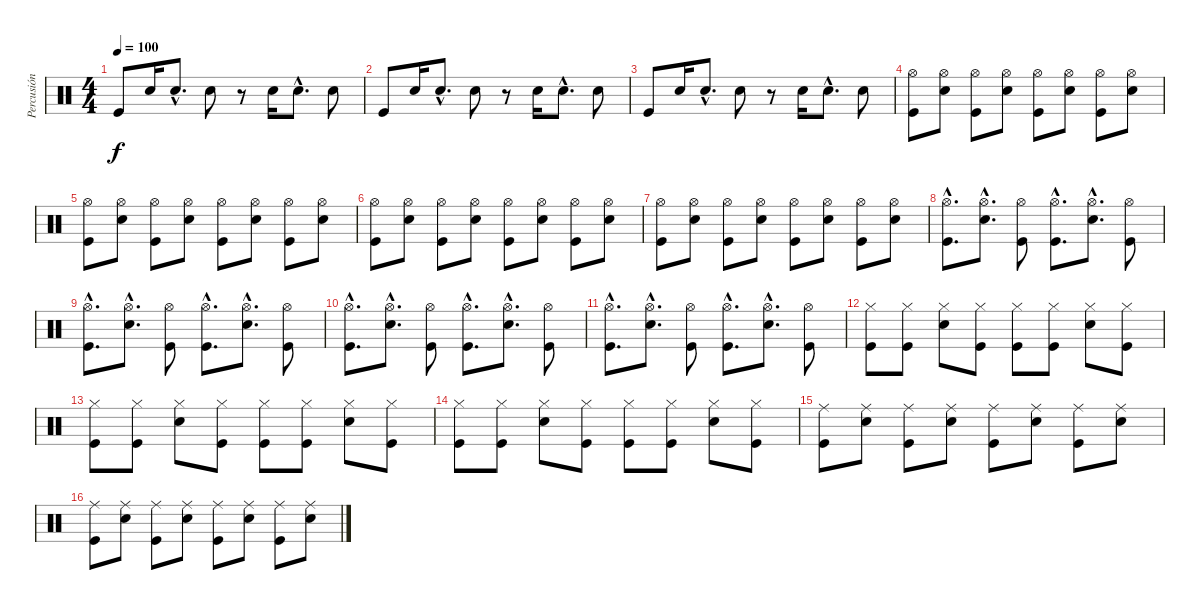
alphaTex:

\track ("Percusión" "Percusión") {instrument percussion}
\staff {score}
\articulation defaults
\ts (4 4)
\tempo 100
\clef neutral
\ks c "Kick (hit)".8{dy f} "Snare (hit) 2".16 "Snare (hit) 2"{hac}.8{d} "Snare (hit) 2".8
r.8 "Snare (hit) 2".16 "Snare (hit) 2"{hac}.8{d} "Snare (hit) 2".8 |
"Kick (hit)".8 "Snare (hit) 2".16 "Snare (hit) 2"{hac}.8{d} "Snare (hit) 2".8 r.8 "Snare (hit) 2".16 "Snare (hit) 2"{hac}.8{d} "Snare (hit) 2".8 |
"Kick (hit)".8 "Snare (hit) 2".16 "Snare (hit) 2"{hac}.8{d} "Snare (hit) 2".8 r.8 "Snare (hit) 2".16 "Snare (hit) 2"{hac}.8{d} "Snare (hit) 2".8 |
("Hi-Hat (open)" "Kick (hit)").8 ("Hi-Hat (open)" "Snare (hit) 2").8 ("Hi-Hat (open)" "Kick (hit)").8 ("Hi-Hat (open)" "Snare (hit) 2").8 ("Hi-Hat (open)" "Kick (hit)").8 ("Hi-Hat (open)" "Snare (hit) 2").8 ("Hi-Hat (open)" "Kick (hit)").8 ("Hi-Hat (open)" "Snare (hit) 2").8 |
("Hi-Hat (open)" "Kick (hit)").8 ("Hi-Hat (open)" "Snare (hit) 2").8 ("Hi-Hat (open)" "Kick (hit)").8 ("Hi-Hat (open)" "Snare (hit) 2").8 ("Hi-Hat (open)" "Kick (hit)").8 ("Hi-Hat (open)" "Snare (hit) 2").8 ("Hi-Hat (open)" "Kick (hit)").8 ("Hi-Hat (open)" "Snare (hit) 2").8 |
("Hi-Hat (open)" "Kick (hit)").8 ("Hi-Hat (open)" "Snare (hit) 2").8 ("Hi-Hat (open)" "Kick (hit)").8 ("Hi-Hat (open)" "Snare (hit) 2").8 ("Hi-Hat (open)" "Kick (hit)").8 ("Hi-Hat (open)" "Snare (hit) 2").8 ("Hi-Hat (open)" "Kick (hit)").8 ("Hi-Hat (open)" "Snare (hit) 2").8 |
("Hi-Hat (open)" "Kick (hit)").8 ("Hi-Hat (open)" "Snare (hit) 2").8 ("Hi-Hat (open)" "Kick (hit)").8 ("Hi-Hat (open)" "Snare (hit) 2").8 ("Hi-Hat (open)" "Kick (hit)").8 ("Hi-Hat (open)" "Snare (hit) 2").8 ("Hi-Hat (open)" "Kick (hit)").8 ("Hi-Hat (open)" "Snare (hit) 2").8 |
("Hi-Hat (open)"{hac} "Kick (hit)"{hac}).8{d} ("Hi-Hat (open)"{hac} "Snare (hit) 2"{hac}).8{d} ("Hi-Hat (open)" "Kick (hit)").8 ("Hi-Hat (open)"{hac} "Kick (hit)"{hac}).8{d} ("Hi-Hat (open)"{hac} "Snare (hit) 2"{hac}).8{d} ("Hi-Hat (open)" "Kick (hit)").8 |
("Hi-Hat (open)"{hac} "Kick (hit)"{hac}).8{d} ("Hi-Hat (open)"{hac} "Snare (hit) 2"{hac}).8{d} ("Hi-Hat (open)" "Kick (hit)").8 ("Hi-Hat (open)"{hac} "Kick (hit)"{hac}).8{d} ("Hi-Hat (open)"{hac} "Snare (hit) 2"{hac}).8{d} ("Hi-Hat (open)" "Kick (hit)").8 |
("Hi-Hat (open)"{hac} "Kick (hit)"{hac}).8{d} ("Hi-Hat (open)"{hac} "Snare (hit) 2"{hac}).8{d} ("Hi-Hat (open)" "Kick (hit)").8 ("Hi-Hat (open)"{hac} "Kick (hit)"{hac}).8{d} ("Hi-Hat (open)"{hac} "Snare (hit) 2"{hac}).8{d} ("Hi-Hat (open)" "Kick (hit)").8 |
("Hi-Hat (open)"{hac} "Kick (hit)"{hac}).8{d} ("Hi-Hat (open)"{hac} "Snare (hit) 2"{hac}).8{d} ("Hi-Hat (open)" "Kick (hit)").8 ("Hi-Hat (open)"{hac} "Kick (hit)"{hac}).8{d} ("Hi-Hat (open)"{hac} "Snare (hit) 2"{hac}).8{d} ("Hi-Hat (open)" "Kick (hit)").8 |
("Hi-Hat (closed)" "Kick (hit)").8 ("Hi-Hat (closed)" "Kick (hit)").8 ("Hi-Hat (closed)" "Snare (hit) 2").8 ("Hi-Hat (closed)" "Kick (hit)").8 ("Hi-Hat (closed)" "Kick (hit)").8 ("Hi-Hat (closed)" "Kick (hit)").8 ("Hi-Hat (closed)" "Snare (hit) 2").8 ("Hi-Hat (closed)" "Kick (hit)").8 |
("Hi-Hat (closed)" "Kick (hit)").8 ("Hi-Hat (closed)" "Kick (hit)").8 ("Hi-Hat (closed)" "Snare (hit) 2").8 ("Hi-Hat (closed)" "Kick (hit)").8 ("Hi-Hat (closed)" "Kick (hit)").8 ("Hi-Hat (closed)" "Kick (hit)").8 ("Hi-Hat (closed)" "Snare (hit) 2").8 ("Hi-Hat (closed)" "Kick (hit)").8 |
("Hi-Hat (closed)" "Kick (hit)").8 ("Hi-Hat (closed)" "Kick (hit)").8 ("Hi-Hat (closed)" "Snare (hit) 2").8 ("Hi-Hat (closed)" "Kick (hit)").8 ("Hi-Hat (closed)" "Kick (hit)").8 ("Hi-Hat (closed)" "Kick (hit)").8 ("Hi-Hat (closed)" "Snare (hit) 2").8 ("Hi-Hat (closed)" "Kick (hit)").8 |
("Ride (middle)" "Kick (hit)").8 ("Ride (middle)" "Snare (hit) 2").8 ("Ride (middle)" "Kick (hit)").8 ("Ride (middle)" "Snare (hit) 2").8 ("Ride (middle)" "Kick (hit)").8 ("Ride (middle)" "Snare (hit) 2").8 ("Ride (middle)" "Kick (hit)").8 ("Ride (middle)" "Snare (hit) 2").8 |
("Ride (middle)" "Kick (hit)").8 ("Ride (middle)" "Snare (hit) 2").8 ("Ride (middle)" "Kick (hit)").8 ("Ride (middle)" "Snare (hit) 2").8 ("Ride (middle)" "Kick (hit)").8 ("Ride (middle)" "Snare (hit) 2").8 ("Ride (middle)" "Kick (hit)").8 ("Ride (middle)" "Snare (hit) 2").8
